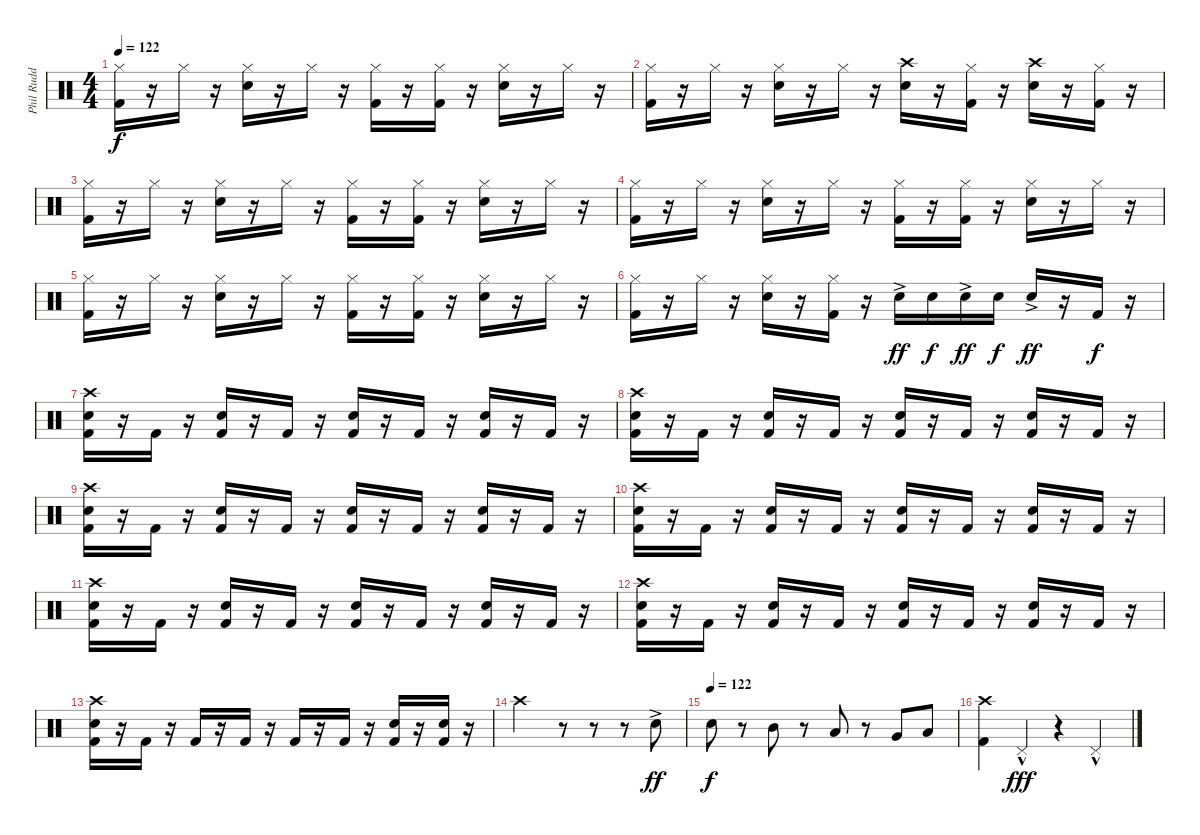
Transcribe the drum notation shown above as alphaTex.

\track ("Phil Rudd" "Phil Rudd") {instrument percussion}
\staff {score}
\articulation defaults
\ts (4 4)
\tempo 122
\clef neutral
\ks c
("Hi-Hat (closed)" "Kick (hit) 2").16{dy f} r.16 "Hi-Hat (closed)".16 r.16 ("Hi-Hat (closed)" "Snare (hit) 2").16 r.16 "Hi-Hat (closed)".16 r.16 ("Hi-Hat (closed)" "Kick (hit) 2").16 r.16 ("Hi-Hat (closed)" "Kick (hit) 2").16 r.16 ("Hi-Hat (closed)" "Snare (hit) 2").16 r.16 "Hi-Hat (closed)".16 r.16 |
("Hi-Hat (closed)" "Kick (hit) 2").16 r.16 "Hi-Hat (closed)".16 r.16 ("Hi-Hat (closed)" "Snare (hit) 2").16 r.16 "Hi-Hat (closed)".16 r.16 ("Crash high (hit)" "Snare (hit) 2").16 r.16 ("Hi-Hat (closed)" "Kick (hit) 2").16 r.16 ("Crash high (hit)" "Snare (hit) 2").16 r.16 ("Hi-Hat (closed)" "Kick (hit) 2").16 r.16 |
("Hi-Hat (closed)" "Kick (hit) 2").16 r.16 "Hi-Hat (closed)".16 r.16 ("Hi-Hat (closed)" "Snare (hit) 2").16 r.16 "Hi-Hat (closed)".16 r.16 ("Hi-Hat (closed)" "Kick (hit) 2").16 r.16 ("Hi-Hat (closed)" "Kick (hit) 2").16 r.16 ("Hi-Hat (closed)" "Snare (hit) 2").16 r.16 "Hi-Hat (closed)".16 r.16 |
("Hi-Hat (closed)" "Kick (hit) 2").16 r.16 "Hi-Hat (closed)".16 r.16 ("Hi-Hat (closed)" "Snare (hit) 2").16 r.16 "Hi-Hat (closed)".16 r.16 ("Hi-Hat (closed)" "Kick (hit) 2").16 r.16 ("Hi-Hat (closed)" "Kick (hit) 2").16 r.16 ("Hi-Hat (closed)" "Snare (hit) 2").16 r.16 "Hi-Hat (closed)".16 r.16 |
("Hi-Hat (closed)" "Kick (hit) 2").16 r.16 "Hi-Hat (closed)".16 r.16 ("Hi-Hat (closed)" "Snare (hit) 2").16 r.16 "Hi-Hat (closed)".16 r.16 ("Hi-Hat (closed)" "Kick (hit) 2").16 r.16 ("Hi-Hat (closed)" "Kick (hit) 2").16 r.16 ("Hi-Hat (closed)" "Snare (hit) 2").16 r.16 "Hi-Hat (closed)".16 r.16 |
("Hi-Hat (closed)" "Kick (hit) 2").16 r.16 "Hi-Hat (closed)".16 r.16 ("Hi-Hat (closed)" "Snare (hit) 2").16 r.16 ("Hi-Hat (closed)" "Kick (hit) 2").16 r.16 "Snare (hit) 2"{ac}.16{dy ff} "Snare (hit) 2".16{dy f} "Snare (hit) 2"{ac}.16{dy ff} "Snare (hit) 2".16{dy f} "Snare (hit) 2"{ac}.16{dy ff} r.16 "Kick (hit) 2".16{dy f} r.16 |
("Crash high (hit)" "Snare (hit) 2" "Kick (hit) 2").16 r.16 "Kick (hit) 2".16 r.16 ("Snare (hit) 2" "Kick (hit) 2").16 r.16 "Kick (hit) 2".16 r.16 ("Snare (hit) 2" "Kick (hit) 2").16 r.16 "Kick (hit) 2".16 r.16 ("Snare (hit) 2" "Kick (hit) 2").16 r.16 "Kick (hit) 2".16 r.16 |
("Crash high (hit)" "Snare (hit) 2" "Kick (hit) 2").16 r.16 "Kick (hit) 2".16 r.16 ("Snare (hit) 2" "Kick (hit) 2").16 r.16 "Kick (hit) 2".16 r.16 ("Snare (hit) 2" "Kick (hit) 2").16 r.16 "Kick (hit) 2".16 r.16 ("Snare (hit) 2" "Kick (hit) 2").16 r.16 "Kick (hit) 2".16 r.16 |
("Crash high (hit)" "Snare (hit) 2" "Kick (hit) 2").16 r.16 "Kick (hit) 2".16 r.16 ("Snare (hit) 2" "Kick (hit) 2").16 r.16 "Kick (hit) 2".16 r.16 ("Snare (hit) 2" "Kick (hit) 2").16 r.16 "Kick (hit) 2".16 r.16 ("Snare (hit) 2" "Kick (hit) 2").16 r.16 "Kick (hit) 2".16 r.16 |
("Crash high (hit)" "Snare (hit) 2" "Kick (hit) 2").16 r.16 "Kick (hit) 2".16 r.16 ("Snare (hit) 2" "Kick (hit) 2").16 r.16 "Kick (hit) 2".16 r.16 ("Snare (hit) 2" "Kick (hit) 2").16 r.16 "Kick (hit) 2".16 r.16 ("Snare (hit) 2" "Kick (hit) 2").16 r.16 "Kick (hit) 2".16 r.16 |
("Crash high (hit)" "Snare (hit) 2" "Kick (hit) 2").16 r.16 "Kick (hit) 2".16 r.16 ("Snare (hit) 2" "Kick (hit) 2").16 r.16 "Kick (hit) 2".16 r.16 ("Snare (hit) 2" "Kick (hit) 2").16 r.16 "Kick (hit) 2".16 r.16 ("Snare (hit) 2" "Kick (hit) 2").16 r.16 "Kick (hit) 2".16 r.16 |
("Crash high (hit)" "Snare (hit) 2" "Kick (hit) 2").16 r.16 "Kick (hit) 2".16 r.16 ("Snare (hit) 2" "Kick (hit) 2").16 r.16 "Kick (hit) 2".16 r.16 ("Snare (hit) 2" "Kick (hit) 2").16 r.16 "Kick (hit) 2".16 r.16 ("Snare (hit) 2" "Kick (hit) 2").16 r.16 "Kick (hit) 2".16 r.16 |
("Crash high (hit)" "Snare (hit) 2" "Kick (hit) 2").16 r.16 "Kick (hit) 2".16 r.16 "Kick (hit) 2".16 r.16 "Kick (hit) 2".16 r.16 "Kick (hit) 2".16 r.16 "Kick (hit) 2".16 r.16 ("Snare (hit) 2" "Kick (hit) 2").16 r.16 ("Snare (hit) 2" "Kick (hit) 2").16 r.16 |
"Crash high (hit)".2 r.8 r.8 r.8 "Snare (hit) 2"{ac}.8{dy ff} |
\tempo (122)
"Snare (hit) 2".8{dy f} r.8 "Mid Tom (hit)".8 r.8 "Low Tom (hit)".8 r.8 "Very Low Tom (hit)".8 "Low Floor Tom (hit)".8 |
("Crash high (hit)" "Kick (hit) 2").4 "Pedal Hi-Hat (hit)"{hac}.4{dy fff} r.4 "Pedal Hi-Hat (hit)"{hac}.4
